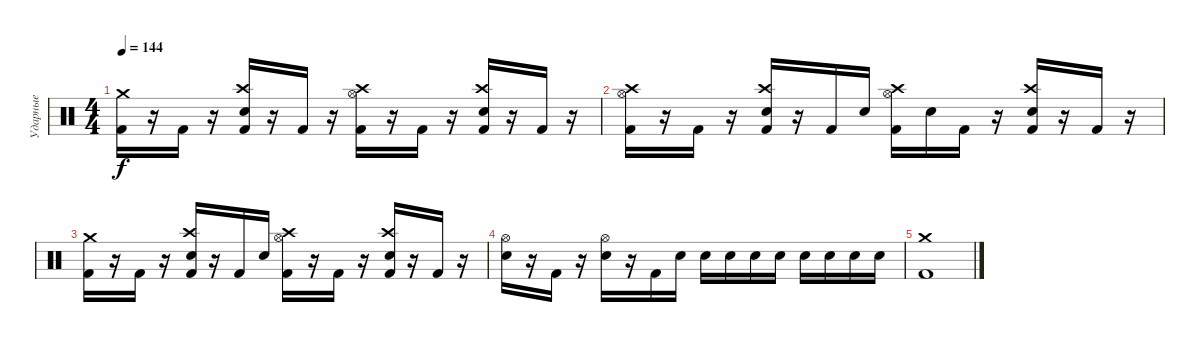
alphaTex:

\track ("Ударные" "Ударные") {instrument percussion}
\staff {score}
\articulation defaults
\ts (4 4)
\tempo 144
\clef neutral
\ks c
("Crash medium (hit)" "Kick (hit) 2").16{dy f} r.16 "Kick (hit) 2".16 r.16 ("Crash high (hit)" "Electric Snare (hit)" "Kick (hit) 2").16 r.16 "Kick (hit) 2".16 r.16 ("Crash high (hit)" "Hi-Hat (open)" "Kick (hit) 2").16 r.16 "Kick (hit) 2".16 r.16 ("Crash high (hit)" "Electric Snare (hit)" "Kick (hit) 2").16 r.16 "Kick (hit) 2".16 r.16 |
("Crash high (hit)" "Hi-Hat (open)" "Kick (hit) 2").16 r.16 "Kick (hit) 2".16 r.16 ("Crash high (hit)" "Electric Snare (hit)" "Kick (hit) 2").16 r.16 "Kick (hit) 2".16 "Electric Snare (hit)".16 ("Crash high (hit)" "Hi-Hat (open)" "Kick (hit) 2").16 "Electric Snare (hit)".16 "Kick (hit) 2".16 r.16 ("Crash high (hit)" "Electric Snare (hit)" "Kick (hit) 2").16 r.16 "Kick (hit) 2".16 r.16 |
("Crash medium (hit)" "Kick (hit) 2").16 r.16 "Kick (hit) 2".16 r.16 ("Crash high (hit)" "Electric Snare (hit)" "Kick (hit) 2").16 r.16 "Kick (hit) 2".16 "Electric Snare (hit)".16 ("Crash high (hit)" "Hi-Hat (open)" "Kick (hit) 2").16 r.16 "Kick (hit) 2".16 r.16 ("Crash high (hit)" "Electric Snare (hit)" "Kick (hit) 2").16 r.16 "Kick (hit) 2".16 r.16 |
("Hi-Hat (open)" "Electric Snare (hit)").16 r.16 "Kick (hit) 2".16 r.16 ("Hi-Hat (open)" "Electric Snare (hit)").16 r.16 "Kick (hit) 2".16 "Electric Snare (hit)".16 "Electric Snare (hit)".16 "Electric Snare (hit)".16 "Electric Snare (hit)".16 "Electric Snare (hit)".16 "Electric Snare (hit)".16 "Electric Snare (hit)".16 "Electric Snare (hit)".16 "Electric Snare (hit)".16 |
("Crash medium (hit)" "Kick (hit) 2").1
